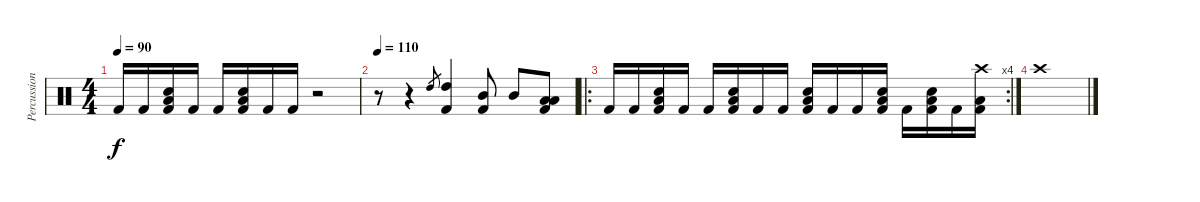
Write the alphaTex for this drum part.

\track ("Percussions" "Percussion") {instrument percussion}
\staff {score}
\articulation defaults
\ts (4 4)
\tempo 90
\clef neutral
\ks c "Kick (hit) 2".16{dy f} "Kick (hit) 2".16
("Snare (hit) 2" "Low Tom (hit)" "Kick (hit) 2").16 "Kick (hit) 2".16 "Kick (hit) 2".16 ("Snare (hit) 2" "Low Tom (hit)" "Kick (hit) 2").16 "Kick (hit) 2".16 "Kick (hit) 2".16 r.2 |
\tempo 110
r.8 r.4 "High Tom (hit)".8{gr} ("High Tom (hit)" "Kick (hit) 2").4 ("Mid Tom (hit)" "Kick (hit) 2").8 "Mid Tom (hit)".8 ("Low Tom (hit)" "Low Tom (hit)" "Kick (hit) 2").8 |
\ro
\rc 4 "Kick (hit) 2".16 "Kick (hit) 2".16
("Snare (hit) 2" "Low Tom (hit)" "Kick (hit) 2").16 "Kick (hit) 2".16 "Kick (hit) 2".16 ("Snare (hit) 2" "Low Tom (hit)" "Kick (hit) 2").16 "Kick (hit) 2".16 "Kick (hit) 2".16 ("Snare (hit) 2" "Low Tom (hit)" "Kick (hit) 2").16 "Kick (hit) 2".16 "Kick (hit) 2".16 ("Snare (hit) 2" "Low Tom (hit)" "Kick (hit) 2").16 "Kick (hit) 2".16 ("Snare (hit) 2" "Low Tom (hit)" "Kick (hit) 2").16 "Kick (hit) 2".16 ("Crash high (hit)" "Low Tom (hit)" "Kick (hit) 2").16 |
"Crash high (hit)".1
